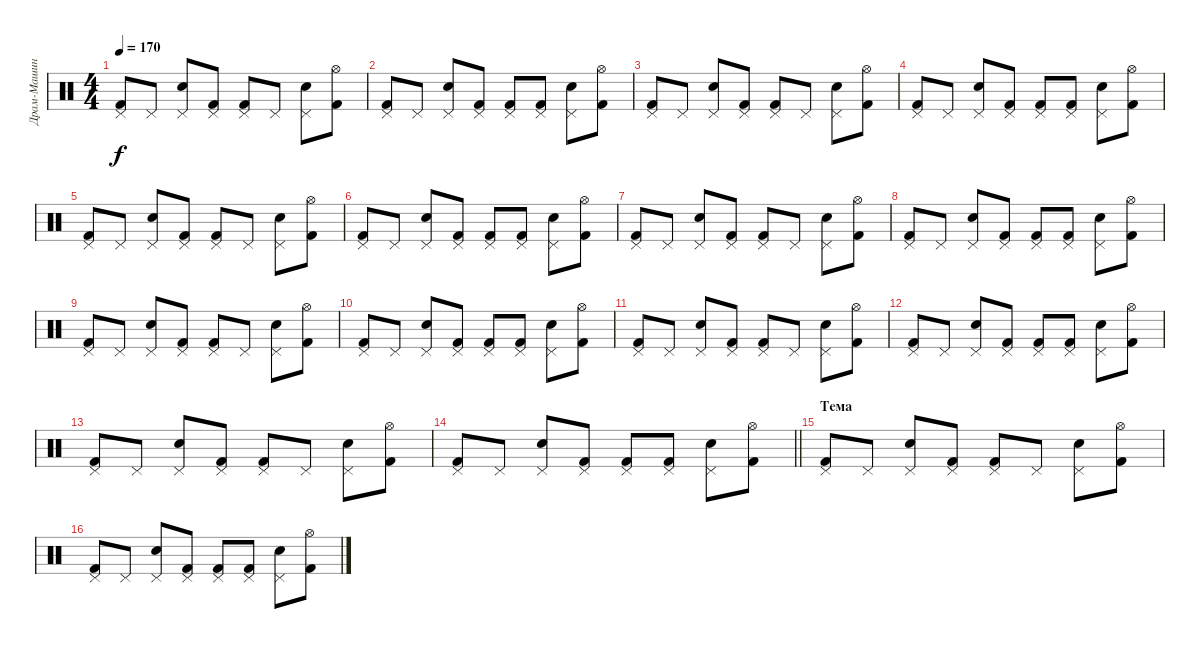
\track ("Драм-Машина" "Драм-Машин") {instrument percussion}
\staff {score}
\articulation defaults
\ts (4 4)
\tempo 170
\clef neutral
\ks c
("Pedal Hi-Hat (hit)" "Kick (hit) 2").8{dy f} "Pedal Hi-Hat (hit)".8 ("Pedal Hi-Hat (hit)" "Electric Snare (hit)").8 ("Pedal Hi-Hat (hit)" "Kick (hit) 2").8 ("Pedal Hi-Hat (hit)" "Kick (hit) 2").8 "Pedal Hi-Hat (hit)".8 ("Pedal Hi-Hat (hit)" "Electric Snare (hit)").8 ("Hi-Hat (open)" "Kick (hit) 2").8 |
("Pedal Hi-Hat (hit)" "Kick (hit) 2").8 "Pedal Hi-Hat (hit)".8 ("Pedal Hi-Hat (hit)" "Electric Snare (hit)").8 ("Pedal Hi-Hat (hit)" "Kick (hit) 2").8 ("Pedal Hi-Hat (hit)" "Kick (hit) 2").8 ("Pedal Hi-Hat (hit)" "Kick (hit) 2").8 ("Pedal Hi-Hat (hit)" "Electric Snare (hit)").8 ("Hi-Hat (open)" "Kick (hit) 2").8 |
("Pedal Hi-Hat (hit)" "Kick (hit) 2").8 "Pedal Hi-Hat (hit)".8 ("Pedal Hi-Hat (hit)" "Electric Snare (hit)").8 ("Pedal Hi-Hat (hit)" "Kick (hit) 2").8 ("Pedal Hi-Hat (hit)" "Kick (hit) 2").8 "Pedal Hi-Hat (hit)".8 ("Pedal Hi-Hat (hit)" "Electric Snare (hit)").8 ("Hi-Hat (open)" "Kick (hit) 2").8 |
("Pedal Hi-Hat (hit)" "Kick (hit) 2").8 "Pedal Hi-Hat (hit)".8 ("Pedal Hi-Hat (hit)" "Electric Snare (hit)").8 ("Pedal Hi-Hat (hit)" "Kick (hit) 2").8 ("Pedal Hi-Hat (hit)" "Kick (hit) 2").8 ("Pedal Hi-Hat (hit)" "Kick (hit) 2").8 ("Pedal Hi-Hat (hit)" "Electric Snare (hit)").8 ("Hi-Hat (open)" "Kick (hit) 2").8 |
("Pedal Hi-Hat (hit)" "Kick (hit) 2").8 "Pedal Hi-Hat (hit)".8 ("Pedal Hi-Hat (hit)" "Electric Snare (hit)").8 ("Pedal Hi-Hat (hit)" "Kick (hit) 2").8 ("Pedal Hi-Hat (hit)" "Kick (hit) 2").8 "Pedal Hi-Hat (hit)".8 ("Pedal Hi-Hat (hit)" "Electric Snare (hit)").8 ("Hi-Hat (open)" "Kick (hit) 2").8 |
("Pedal Hi-Hat (hit)" "Kick (hit) 2").8 "Pedal Hi-Hat (hit)".8 ("Pedal Hi-Hat (hit)" "Electric Snare (hit)").8 ("Pedal Hi-Hat (hit)" "Kick (hit) 2").8 ("Pedal Hi-Hat (hit)" "Kick (hit) 2").8 ("Pedal Hi-Hat (hit)" "Kick (hit) 2").8 ("Pedal Hi-Hat (hit)" "Electric Snare (hit)").8 ("Hi-Hat (open)" "Kick (hit) 2").8 |
("Pedal Hi-Hat (hit)" "Kick (hit) 2").8 "Pedal Hi-Hat (hit)".8 ("Pedal Hi-Hat (hit)" "Electric Snare (hit)").8 ("Pedal Hi-Hat (hit)" "Kick (hit) 2").8 ("Pedal Hi-Hat (hit)" "Kick (hit) 2").8 "Pedal Hi-Hat (hit)".8 ("Pedal Hi-Hat (hit)" "Electric Snare (hit)").8 ("Hi-Hat (open)" "Kick (hit) 2").8 |
("Pedal Hi-Hat (hit)" "Kick (hit) 2").8 "Pedal Hi-Hat (hit)".8 ("Pedal Hi-Hat (hit)" "Electric Snare (hit)").8 ("Pedal Hi-Hat (hit)" "Kick (hit) 2").8 ("Pedal Hi-Hat (hit)" "Kick (hit) 2").8 ("Pedal Hi-Hat (hit)" "Kick (hit) 2").8 ("Pedal Hi-Hat (hit)" "Electric Snare (hit)").8 ("Hi-Hat (open)" "Kick (hit) 2").8 |
("Pedal Hi-Hat (hit)" "Kick (hit) 2").8 "Pedal Hi-Hat (hit)".8 ("Pedal Hi-Hat (hit)" "Electric Snare (hit)").8 ("Pedal Hi-Hat (hit)" "Kick (hit) 2").8 ("Pedal Hi-Hat (hit)" "Kick (hit) 2").8 "Pedal Hi-Hat (hit)".8 ("Pedal Hi-Hat (hit)" "Electric Snare (hit)").8 ("Hi-Hat (open)" "Kick (hit) 2").8 |
("Pedal Hi-Hat (hit)" "Kick (hit) 2").8 "Pedal Hi-Hat (hit)".8 ("Pedal Hi-Hat (hit)" "Electric Snare (hit)").8 ("Pedal Hi-Hat (hit)" "Kick (hit) 2").8 ("Pedal Hi-Hat (hit)" "Kick (hit) 2").8 ("Pedal Hi-Hat (hit)" "Kick (hit) 2").8 ("Pedal Hi-Hat (hit)" "Electric Snare (hit)").8 ("Hi-Hat (open)" "Kick (hit) 2").8 |
("Pedal Hi-Hat (hit)" "Kick (hit) 2").8 "Pedal Hi-Hat (hit)".8 ("Pedal Hi-Hat (hit)" "Electric Snare (hit)").8 ("Pedal Hi-Hat (hit)" "Kick (hit) 2").8 ("Pedal Hi-Hat (hit)" "Kick (hit) 2").8 "Pedal Hi-Hat (hit)".8 ("Pedal Hi-Hat (hit)" "Electric Snare (hit)").8 ("Hi-Hat (open)" "Kick (hit) 2").8 |
("Pedal Hi-Hat (hit)" "Kick (hit) 2").8 "Pedal Hi-Hat (hit)".8 ("Pedal Hi-Hat (hit)" "Electric Snare (hit)").8 ("Pedal Hi-Hat (hit)" "Kick (hit) 2").8 ("Pedal Hi-Hat (hit)" "Kick (hit) 2").8 ("Pedal Hi-Hat (hit)" "Kick (hit) 2").8 ("Pedal Hi-Hat (hit)" "Electric Snare (hit)").8 ("Hi-Hat (open)" "Kick (hit) 2").8 |
("Pedal Hi-Hat (hit)" "Kick (hit) 2").8 "Pedal Hi-Hat (hit)".8 ("Pedal Hi-Hat (hit)" "Electric Snare (hit)").8 ("Pedal Hi-Hat (hit)" "Kick (hit) 2").8 ("Pedal Hi-Hat (hit)" "Kick (hit) 2").8 "Pedal Hi-Hat (hit)".8 ("Pedal Hi-Hat (hit)" "Electric Snare (hit)").8 ("Hi-Hat (open)" "Kick (hit) 2").8 |
\barLineRight lightlight
("Pedal Hi-Hat (hit)" "Kick (hit) 2").8 "Pedal Hi-Hat (hit)".8 ("Pedal Hi-Hat (hit)" "Electric Snare (hit)").8 ("Pedal Hi-Hat (hit)" "Kick (hit) 2").8 ("Pedal Hi-Hat (hit)" "Kick (hit) 2").8 ("Pedal Hi-Hat (hit)" "Kick (hit) 2").8 ("Pedal Hi-Hat (hit)" "Electric Snare (hit)").8 ("Hi-Hat (open)" "Kick (hit) 2").8 |
\section ("" "Тема")
("Pedal Hi-Hat (hit)" "Kick (hit) 2").8 "Pedal Hi-Hat (hit)".8 ("Pedal Hi-Hat (hit)" "Electric Snare (hit)").8 ("Pedal Hi-Hat (hit)" "Kick (hit) 2").8 ("Pedal Hi-Hat (hit)" "Kick (hit) 2").8 "Pedal Hi-Hat (hit)".8 ("Pedal Hi-Hat (hit)" "Electric Snare (hit)").8 ("Hi-Hat (open)" "Kick (hit) 2").8 |
("Pedal Hi-Hat (hit)" "Kick (hit) 2").8 "Pedal Hi-Hat (hit)".8 ("Pedal Hi-Hat (hit)" "Electric Snare (hit)").8 ("Pedal Hi-Hat (hit)" "Kick (hit) 2").8 ("Pedal Hi-Hat (hit)" "Kick (hit) 2").8 ("Pedal Hi-Hat (hit)" "Kick (hit) 2").8 ("Pedal Hi-Hat (hit)" "Electric Snare (hit)").8 ("Hi-Hat (open)" "Kick (hit) 2").8
